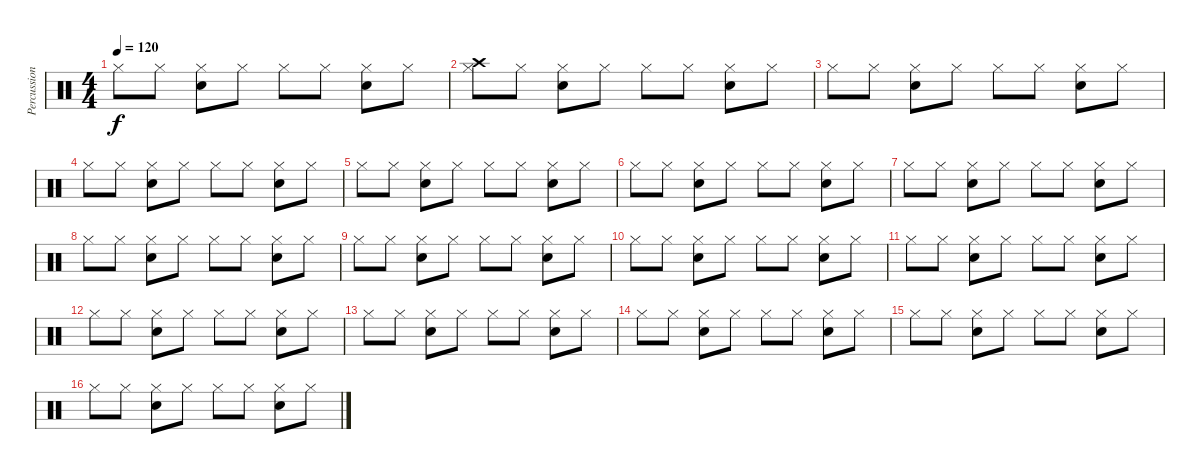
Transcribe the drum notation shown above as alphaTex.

\track ("Percussion      " "Percussion") {instrument percussion}
\staff {score}
\articulation defaults
\ts (4 4)
\tempo 120
\clef neutral
\ks c "Hi-Hat (closed)".8{dy f} "Hi-Hat (closed)".8
("Hi-Hat (closed)" "Snare (hit) 2").8 "Hi-Hat (closed)".8 "Hi-Hat (closed)".8 "Hi-Hat (closed)".8 ("Hi-Hat (closed)" "Snare (hit) 2").8 "Hi-Hat (closed)".8 |
("Crash high (hit)" "Hi-Hat (closed)").8 "Hi-Hat (closed)".8 ("Hi-Hat (closed)" "Snare (hit) 2").8 "Hi-Hat (closed)".8 "Hi-Hat (closed)".8 "Hi-Hat (closed)".8 ("Hi-Hat (closed)" "Snare (hit) 2").8 "Hi-Hat (closed)".8 |
"Hi-Hat (closed)".8 "Hi-Hat (closed)".8 ("Hi-Hat (closed)" "Snare (hit) 2").8 "Hi-Hat (closed)".8 "Hi-Hat (closed)".8 "Hi-Hat (closed)".8 ("Hi-Hat (closed)" "Snare (hit) 2").8 "Hi-Hat (closed)".8 |
"Hi-Hat (closed)".8 "Hi-Hat (closed)".8 ("Hi-Hat (closed)" "Snare (hit) 2").8 "Hi-Hat (closed)".8 "Hi-Hat (closed)".8 "Hi-Hat (closed)".8 ("Hi-Hat (closed)" "Snare (hit) 2").8 "Hi-Hat (closed)".8 |
"Hi-Hat (closed)".8 "Hi-Hat (closed)".8 ("Hi-Hat (closed)" "Snare (hit) 2").8 "Hi-Hat (closed)".8 "Hi-Hat (closed)".8 "Hi-Hat (closed)".8 ("Hi-Hat (closed)" "Snare (hit) 2").8 "Hi-Hat (closed)".8 |
"Hi-Hat (closed)".8 "Hi-Hat (closed)".8 ("Hi-Hat (closed)" "Snare (hit) 2").8 "Hi-Hat (closed)".8 "Hi-Hat (closed)".8 "Hi-Hat (closed)".8 ("Hi-Hat (closed)" "Snare (hit) 2").8 "Hi-Hat (closed)".8 |
"Hi-Hat (closed)".8 "Hi-Hat (closed)".8 ("Hi-Hat (closed)" "Snare (hit) 2").8 "Hi-Hat (closed)".8 "Hi-Hat (closed)".8 "Hi-Hat (closed)".8 ("Hi-Hat (closed)" "Snare (hit) 2").8 "Hi-Hat (closed)".8 |
"Hi-Hat (closed)".8 "Hi-Hat (closed)".8 ("Hi-Hat (closed)" "Snare (hit) 2").8 "Hi-Hat (closed)".8 "Hi-Hat (closed)".8 "Hi-Hat (closed)".8 ("Hi-Hat (closed)" "Snare (hit) 2").8 "Hi-Hat (closed)".8 |
"Hi-Hat (closed)".8 "Hi-Hat (closed)".8 ("Hi-Hat (closed)" "Snare (hit) 2").8 "Hi-Hat (closed)".8 "Hi-Hat (closed)".8 "Hi-Hat (closed)".8 ("Hi-Hat (closed)" "Snare (hit) 2").8 "Hi-Hat (closed)".8 |
"Hi-Hat (closed)".8 "Hi-Hat (closed)".8 ("Hi-Hat (closed)" "Snare (hit) 2").8 "Hi-Hat (closed)".8 "Hi-Hat (closed)".8 "Hi-Hat (closed)".8 ("Hi-Hat (closed)" "Snare (hit) 2").8 "Hi-Hat (closed)".8 |
"Hi-Hat (closed)".8 "Hi-Hat (closed)".8 ("Hi-Hat (closed)" "Snare (hit) 2").8 "Hi-Hat (closed)".8 "Hi-Hat (closed)".8 "Hi-Hat (closed)".8 ("Hi-Hat (closed)" "Snare (hit) 2").8 "Hi-Hat (closed)".8 |
"Hi-Hat (closed)".8 "Hi-Hat (closed)".8 ("Hi-Hat (closed)" "Snare (hit) 2").8 "Hi-Hat (closed)".8 "Hi-Hat (closed)".8 "Hi-Hat (closed)".8 ("Hi-Hat (closed)" "Snare (hit) 2").8 "Hi-Hat (closed)".8 |
"Hi-Hat (closed)".8 "Hi-Hat (closed)".8 ("Hi-Hat (closed)" "Snare (hit) 2").8 "Hi-Hat (closed)".8 "Hi-Hat (closed)".8 "Hi-Hat (closed)".8 ("Hi-Hat (closed)" "Snare (hit) 2").8 "Hi-Hat (closed)".8 |
"Hi-Hat (closed)".8 "Hi-Hat (closed)".8 ("Hi-Hat (closed)" "Snare (hit) 2").8 "Hi-Hat (closed)".8 "Hi-Hat (closed)".8 "Hi-Hat (closed)".8 ("Hi-Hat (closed)" "Snare (hit) 2").8 "Hi-Hat (closed)".8 |
"Hi-Hat (closed)".8 "Hi-Hat (closed)".8 ("Hi-Hat (closed)" "Snare (hit) 2").8 "Hi-Hat (closed)".8 "Hi-Hat (closed)".8 "Hi-Hat (closed)".8 ("Hi-Hat (closed)" "Snare (hit) 2").8 "Hi-Hat (closed)".8 |
"Hi-Hat (closed)".8 "Hi-Hat (closed)".8 ("Hi-Hat (closed)" "Snare (hit) 2").8 "Hi-Hat (closed)".8 "Hi-Hat (closed)".8 "Hi-Hat (closed)".8 ("Hi-Hat (closed)" "Snare (hit) 2").8 "Hi-Hat (closed)".8
